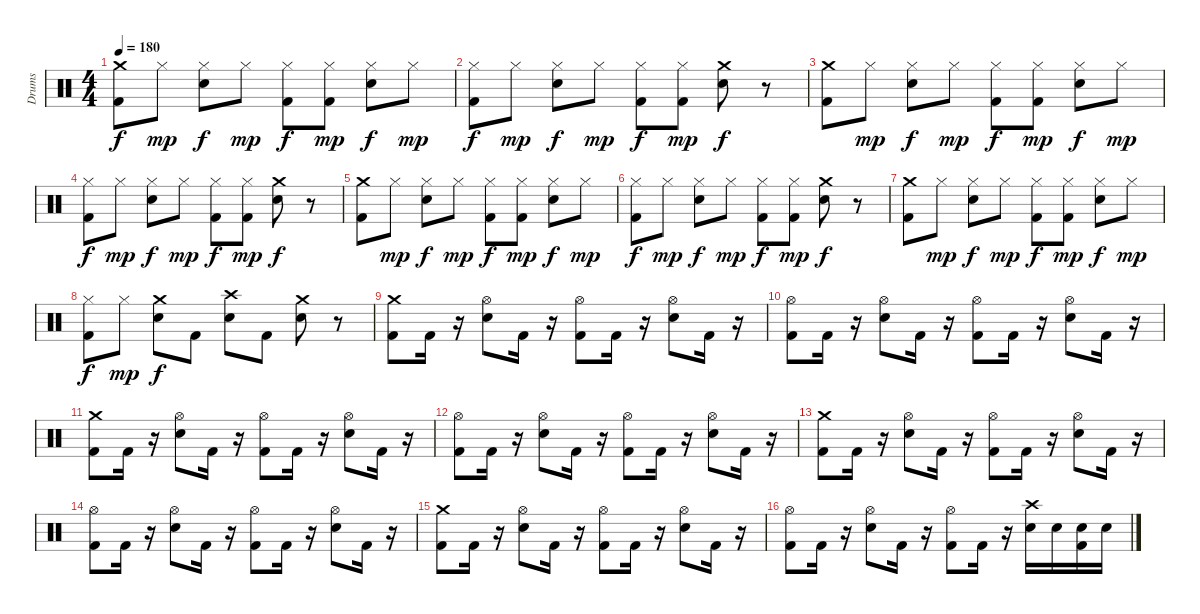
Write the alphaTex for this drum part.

\track ("Drums" "Drums") {instrument percussion}
\staff {score}
\articulation defaults
\ts (4 4)
\tempo 180
\clef neutral
\ks c
("Kick (hit) 2" "Crash medium (hit)").8{dy f} "Hi-Hat (closed)".8{dy mp} ("Electric Snare (hit)" "Hi-Hat (closed)").8{dy f} "Hi-Hat (closed)".8{dy mp} ("Kick (hit) 2" "Hi-Hat (closed)").8{dy f} ("Kick (hit) 2" "Hi-Hat (closed)").8{dy mp} ("Electric Snare (hit)" "Hi-Hat (closed)").8{dy f} "Hi-Hat (closed)".8{dy mp} |
("Kick (hit) 2" "Hi-Hat (closed)").8{dy f} "Hi-Hat (closed)".8{dy mp} ("Electric Snare (hit)" "Hi-Hat (closed)").8{dy f} "Hi-Hat (closed)".8{dy mp} ("Kick (hit) 2" "Hi-Hat (closed)").8{dy f} ("Kick (hit) 2" "Hi-Hat (closed)").8{dy mp} ("Electric Snare (hit)" "Crash medium (hit)").8{dy f} r.8 |
("Kick (hit) 2" "Crash medium (hit)").8 "Hi-Hat (closed)".8{dy mp} ("Electric Snare (hit)" "Hi-Hat (closed)").8{dy f} "Hi-Hat (closed)".8{dy mp} ("Kick (hit) 2" "Hi-Hat (closed)").8{dy f} ("Kick (hit) 2" "Hi-Hat (closed)").8{dy mp} ("Electric Snare (hit)" "Hi-Hat (closed)").8{dy f} "Hi-Hat (closed)".8{dy mp} |
("Kick (hit) 2" "Hi-Hat (closed)").8{dy f} "Hi-Hat (closed)".8{dy mp} ("Electric Snare (hit)" "Hi-Hat (closed)").8{dy f} "Hi-Hat (closed)".8{dy mp} ("Kick (hit) 2" "Hi-Hat (closed)").8{dy f} ("Kick (hit) 2" "Hi-Hat (closed)").8{dy mp} ("Electric Snare (hit)" "Crash medium (hit)").8{dy f} r.8 |
("Kick (hit) 2" "Crash medium (hit)").8 "Hi-Hat (closed)".8{dy mp} ("Electric Snare (hit)" "Hi-Hat (closed)").8{dy f} "Hi-Hat (closed)".8{dy mp} ("Kick (hit) 2" "Hi-Hat (closed)").8{dy f} ("Kick (hit) 2" "Hi-Hat (closed)").8{dy mp} ("Electric Snare (hit)" "Hi-Hat (closed)").8{dy f} "Hi-Hat (closed)".8{dy mp} |
("Kick (hit) 2" "Hi-Hat (closed)").8{dy f} "Hi-Hat (closed)".8{dy mp} ("Electric Snare (hit)" "Hi-Hat (closed)").8{dy f} "Hi-Hat (closed)".8{dy mp} ("Kick (hit) 2" "Hi-Hat (closed)").8{dy f} ("Kick (hit) 2" "Hi-Hat (closed)").8{dy mp} ("Electric Snare (hit)" "Crash medium (hit)").8{dy f} r.8 |
("Kick (hit) 2" "Crash medium (hit)").8 "Hi-Hat (closed)".8{dy mp} ("Electric Snare (hit)" "Hi-Hat (closed)").8{dy f} "Hi-Hat (closed)".8{dy mp} ("Kick (hit) 2" "Hi-Hat (closed)").8{dy f} ("Kick (hit) 2" "Hi-Hat (closed)").8{dy mp} ("Electric Snare (hit)" "Hi-Hat (closed)").8{dy f} "Hi-Hat (closed)".8{dy mp} |
("Kick (hit) 2" "Hi-Hat (closed)").8{dy f} "Hi-Hat (closed)".8{dy mp} ("Electric Snare (hit)" "Crash medium (hit)").8{dy f} "Kick (hit) 2".8 ("Crash high (hit)" "Electric Snare (hit)").8 "Kick (hit) 2".8 ("Crash medium (hit)" "Electric Snare (hit)").8 r.8 |
("Kick (hit) 2" "Crash medium (hit)").8 "Kick (hit) 2".16 r.16 ("Electric Snare (hit)" "Hi-Hat (open)").8 "Kick (hit) 2".16 r.16 ("Kick (hit) 2" "Hi-Hat (open)").8 "Kick (hit) 2".16 r.16 ("Electric Snare (hit)" "Hi-Hat (open)").8 "Kick (hit) 2".16 r.16 |
("Kick (hit) 2" "Hi-Hat (open)").8 "Kick (hit) 2".16 r.16 ("Electric Snare (hit)" "Hi-Hat (open)").8 "Kick (hit) 2".16 r.16 ("Kick (hit) 2" "Hi-Hat (open)").8 "Kick (hit) 2".16 r.16 ("Electric Snare (hit)" "Hi-Hat (open)").8 "Kick (hit) 2".16 r.16 |
("Kick (hit) 2" "Crash medium (hit)").8 "Kick (hit) 2".16 r.16 ("Electric Snare (hit)" "Hi-Hat (open)").8 "Kick (hit) 2".16 r.16 ("Kick (hit) 2" "Hi-Hat (open)").8 "Kick (hit) 2".16 r.16 ("Electric Snare (hit)" "Hi-Hat (open)").8 "Kick (hit) 2".16 r.16 |
("Kick (hit) 2" "Hi-Hat (open)").8 "Kick (hit) 2".16 r.16 ("Electric Snare (hit)" "Hi-Hat (open)").8 "Kick (hit) 2".16 r.16 ("Kick (hit) 2" "Hi-Hat (open)").8 "Kick (hit) 2".16 r.16 ("Electric Snare (hit)" "Hi-Hat (open)").8 "Kick (hit) 2".16 r.16 |
("Kick (hit) 2" "Crash medium (hit)").8 "Kick (hit) 2".16 r.16 ("Electric Snare (hit)" "Hi-Hat (open)").8 "Kick (hit) 2".16 r.16 ("Kick (hit) 2" "Hi-Hat (open)").8 "Kick (hit) 2".16 r.16 ("Electric Snare (hit)" "Hi-Hat (open)").8 "Kick (hit) 2".16 r.16 |
("Kick (hit) 2" "Hi-Hat (open)").8 "Kick (hit) 2".16 r.16 ("Electric Snare (hit)" "Hi-Hat (open)").8 "Kick (hit) 2".16 r.16 ("Kick (hit) 2" "Hi-Hat (open)").8 "Kick (hit) 2".16 r.16 ("Electric Snare (hit)" "Hi-Hat (open)").8 "Kick (hit) 2".16 r.16 |
("Kick (hit) 2" "Crash medium (hit)").8 "Kick (hit) 2".16 r.16 ("Electric Snare (hit)" "Hi-Hat (open)").8 "Kick (hit) 2".16 r.16 ("Kick (hit) 2" "Hi-Hat (open)").8 "Kick (hit) 2".16 r.16 ("Electric Snare (hit)" "Hi-Hat (open)").8 "Kick (hit) 2".16 r.16 |
("Kick (hit) 2" "Hi-Hat (open)").8 "Kick (hit) 2".16 r.16 ("Electric Snare (hit)" "Hi-Hat (open)").8 "Kick (hit) 2".16 r.16 ("Kick (hit) 2" "Hi-Hat (open)").8 "Kick (hit) 2".16 r.16 ("Electric Snare (hit)" "Crash high (hit)").16 "Electric Snare (hit)".16 ("Electric Snare (hit)" "Kick (hit) 2").16 "Electric Snare (hit)".16
